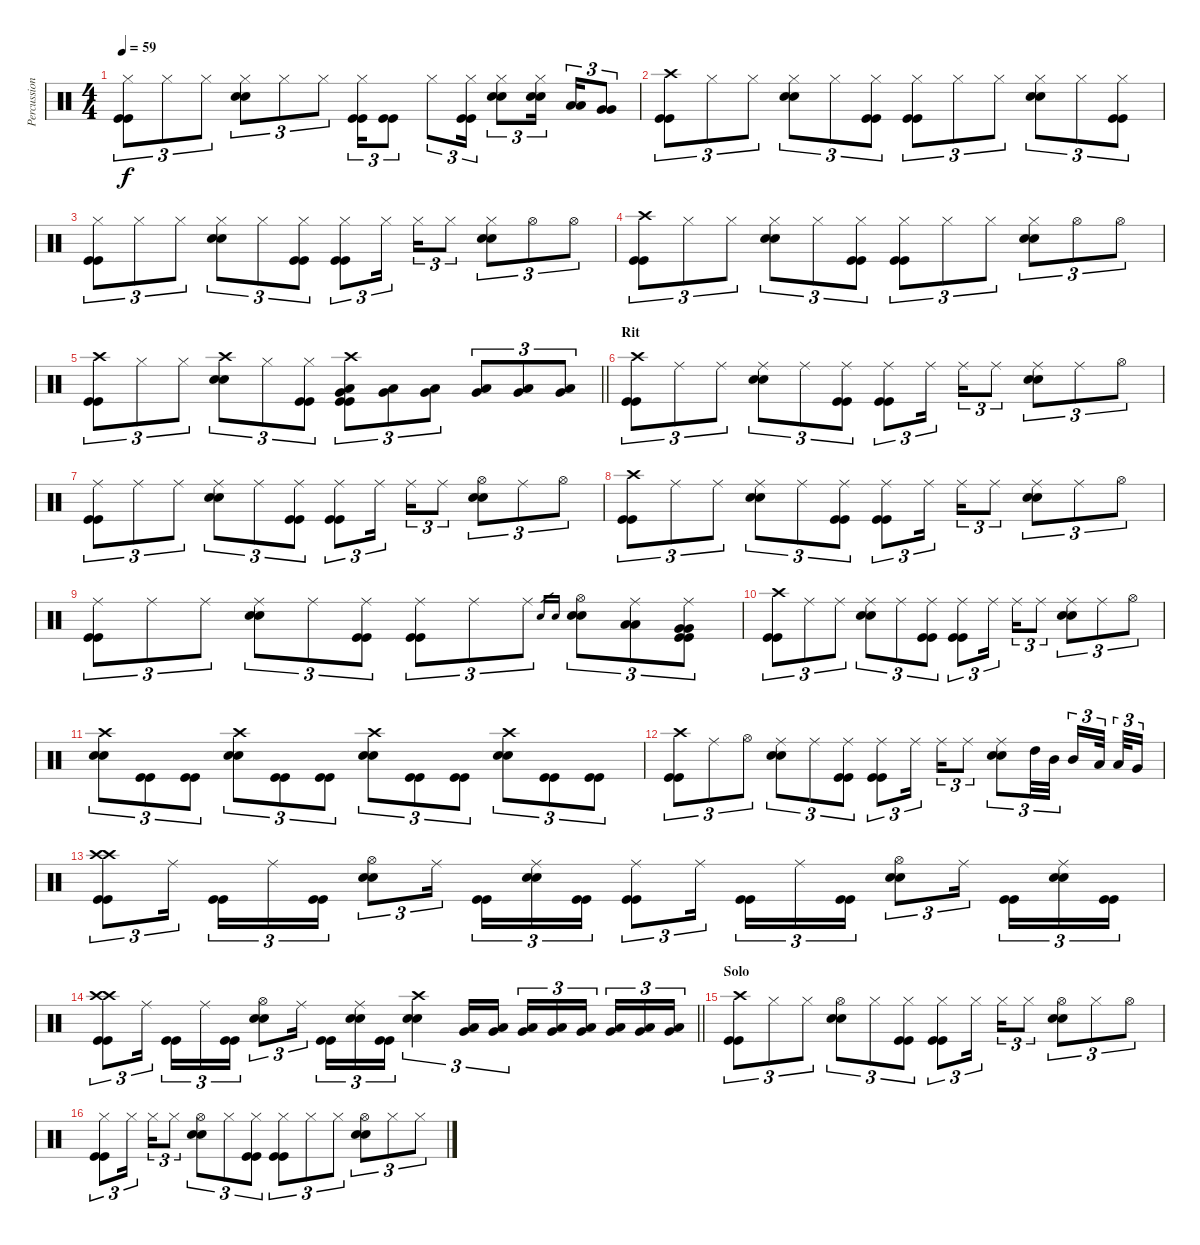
\track ("Percussioni" "Percussion") {instrument percussion}
\staff {score}
\articulation defaults
\ts (4 4)
\tempo 59
\clef neutral
\ks c
("Hi-Hat (closed)" "Kick (hit)" "Kick (hit)").8{tu (3 2) dy f} "Hi-Hat (closed)".8{tu (3 2)} "Hi-Hat (closed)".8{tu (3 2)} ("Hi-Hat (closed)" "Snare (hit) 2" "Snare (hit) 2").8{tu (3 2)} "Hi-Hat (closed)".8{tu (3 2)} "Hi-Hat (closed)".8{tu (3 2)} ("Hi-Hat (closed)" "Kick (hit)" "Kick (hit)").16{tu (3 2)} ("Kick (hit)" "Kick (hit)").8{tu (3 2)} "Hi-Hat (closed)".8{tu (3 2)} ("Hi-Hat (closed)" "Kick (hit)" "Kick (hit)").16{tu (3 2)} ("Hi-Hat (closed)" "Snare (hit) 2" "Snare (hit) 2").8{tu (3 2)} ("Hi-Hat (closed)" "Snare (hit) 2" "Snare (hit) 2").16{tu (3 2) beam splitsecondary} ("Low Tom (hit)" "Low Tom (hit)").16{tu (3 2)} ("Very Low Tom (hit)" "Very Low Tom (hit)").8{tu (3 2)} |
("Crash high (hit)" "Kick (hit)" "Kick (hit)").8{tu (3 2)} "Hi-Hat (closed)".8{tu (3 2)} "Hi-Hat (closed)".8{tu (3 2)} ("Hi-Hat (closed)" "Snare (hit) 2" "Snare (hit) 2").8{tu (3 2)} "Hi-Hat (closed)".8{tu (3 2)} ("Hi-Hat (closed)" "Kick (hit)" "Kick (hit)").8{tu (3 2)} ("Hi-Hat (closed)" "Kick (hit)" "Kick (hit)").8{tu (3 2)} "Hi-Hat (closed)".8{tu (3 2)} "Hi-Hat (closed)".8{tu (3 2)} ("Hi-Hat (closed)" "Snare (hit) 2" "Snare (hit) 2").8{tu (3 2)} "Hi-Hat (closed)".8{tu (3 2)} ("Hi-Hat (closed)" "Kick (hit)" "Kick (hit)").8{tu (3 2)} |
("Hi-Hat (closed)" "Kick (hit)" "Kick (hit)").8{tu (3 2)} "Hi-Hat (closed)".8{tu (3 2)} "Hi-Hat (closed)".8{tu (3 2)} ("Hi-Hat (closed)" "Snare (hit) 2" "Snare (hit) 2").8{tu (3 2)} "Hi-Hat (closed)".8{tu (3 2)} ("Hi-Hat (closed)" "Kick (hit)" "Kick (hit)").8{tu (3 2)} ("Hi-Hat (closed)" "Kick (hit)" "Kick (hit)").8{tu (3 2)} "Hi-Hat (closed)".16{tu (3 2) beam splitsecondary} "Hi-Hat (closed)".16{tu (3 2)} "Hi-Hat (closed)".8{tu (3 2)} ("Hi-Hat (closed)" "Snare (hit) 2" "Snare (hit) 2").8{tu (3 2)} "Hi-Hat (open)".8{tu (3 2)} "Hi-Hat (open)".8{tu (3 2)} |
("Crash high (hit)" "Kick (hit)" "Kick (hit)").8{tu (3 2)} "Hi-Hat (closed)".8{tu (3 2)} "Hi-Hat (closed)".8{tu (3 2)} ("Hi-Hat (closed)" "Snare (hit) 2" "Snare (hit) 2").8{tu (3 2)} "Hi-Hat (closed)".8{tu (3 2)} ("Hi-Hat (closed)" "Kick (hit)" "Kick (hit)").8{tu (3 2)} ("Hi-Hat (closed)" "Kick (hit)" "Kick (hit)").8{tu (3 2)} "Hi-Hat (closed)".8{tu (3 2)} "Hi-Hat (closed)".8{tu (3 2)} ("Hi-Hat (closed)" "Snare (hit) 2" "Snare (hit) 2").8{tu (3 2)} "Hi-Hat (open)".8{tu (3 2)} "Hi-Hat (open)".8{tu (3 2)} |
\barLineRight lightlight
("Crash high (hit)" "Kick (hit)" "Kick (hit)").8{tu (3 2)} "Hi-Hat (closed)".8{tu (3 2)} "Hi-Hat (closed)".8{tu (3 2)} ("Crash high (hit)" "Snare (hit) 2" "Snare (hit) 2").8{tu (3 2)} "Hi-Hat (closed)".8{tu (3 2)} ("Hi-Hat (closed)" "Kick (hit)" "Kick (hit)").8{tu (3 2)} ("Crash high (hit)" "Low Tom (hit)" "Very Low Tom (hit)" "Kick (hit)" "Kick (hit)").8{tu (3 2) volume 6} ("Low Tom (hit)" "Very Low Tom (hit)").8{tu (3 2) volume 9} ("Low Tom (hit)" "Very Low Tom (hit)").8{tu (3 2) volume 11} ("Low Tom (hit)" "Very Low Tom (hit)").8{tu (3 2)} ("Low Tom (hit)" "Very Low Tom (hit)").8{tu (3 2)} ("Low Tom (hit)" "Very Low Tom (hit)").8{tu (3 2)} |
\section ("" "Rit")
("Crash high (hit)" "Kick (hit)" "Kick (hit)").8{tu (3 2)} "Ride (middle)".8{tu (3 2)} "Ride (middle)".8{tu (3 2)} ("Ride (middle)" "Snare (hit) 2" "Snare (hit) 2").8{tu (3 2)} "Ride (middle)".8{tu (3 2)} ("Ride (middle)" "Kick (hit)" "Kick (hit)").8{tu (3 2)} ("Ride (middle)" "Kick (hit)" "Kick (hit)").8{tu (3 2)} "Ride (middle)".16{tu (3 2) beam splitsecondary} "Ride (middle)".16{tu (3 2)} "Ride (middle)".8{tu (3 2)} ("Ride (middle)" "Snare (hit) 2" "Snare (hit) 2").8{tu (3 2)} "Ride (middle)".8{tu (3 2)} "Hi-Hat (open)".8{tu (3 2)} |
("Ride (middle)" "Kick (hit)" "Kick (hit)").8{tu (3 2)} "Ride (middle)".8{tu (3 2)} "Ride (middle)".8{tu (3 2)} ("Ride (middle)" "Snare (hit) 2" "Snare (hit) 2").8{tu (3 2)} "Ride (middle)".8{tu (3 2)} ("Ride (middle)" "Kick (hit)" "Kick (hit)").8{tu (3 2)} ("Ride (middle)" "Kick (hit)" "Kick (hit)").8{tu (3 2)} "Ride (middle)".16{tu (3 2) beam splitsecondary} "Ride (middle)".16{tu (3 2)} "Ride (middle)".8{tu (3 2)} ("Hi-Hat (open)" "Snare (hit) 2" "Snare (hit) 2").8{tu (3 2)} "Ride (middle)".8{tu (3 2)} "Hi-Hat (open)".8{tu (3 2)} |
("Crash high (hit)" "Kick (hit)" "Kick (hit)").8{tu (3 2)} "Ride (middle)".8{tu (3 2)} "Ride (middle)".8{tu (3 2)} ("Ride (middle)" "Snare (hit) 2" "Snare (hit) 2").8{tu (3 2)} "Ride (middle)".8{tu (3 2)} ("Ride (middle)" "Kick (hit)" "Kick (hit)").8{tu (3 2)} ("Ride (middle)" "Kick (hit)" "Kick (hit)").8{tu (3 2)} "Ride (middle)".16{tu (3 2) beam splitsecondary} "Ride (middle)".16{tu (3 2)} "Ride (middle)".8{tu (3 2)} ("Ride (middle)" "Snare (hit) 2" "Snare (hit) 2").8{tu (3 2)} "Ride (middle)".8{tu (3 2)} "Hi-Hat (open)".8{tu (3 2)} |
("Ride (middle)" "Kick (hit)" "Kick (hit)").8{tu (3 2)} "Ride (middle)".8{tu (3 2)} "Ride (middle)".8{tu (3 2)} ("Ride (middle)" "Snare (hit) 2" "Snare (hit) 2").8{tu (3 2)} "Ride (middle)".8{tu (3 2)} ("Ride (middle)" "Kick (hit)" "Kick (hit)").8{tu (3 2)} ("Ride (middle)" "Kick (hit)" "Kick (hit)").8{tu (3 2)} "Ride (middle)".8{tu (3 2)} "Ride (middle)".8{tu (3 2)} "Snare (hit) 2".16{gr} "Snare (hit) 2".16{gr} ("Hi-Hat (open)" "Snare (hit) 2" "Snare (hit) 2").8{tu (3 2)} ("Ride (middle)" "Low Tom (hit)" "Low Tom (hit)").8{tu (3 2)} ("Ride (middle)" "Very Low Tom (hit)" "Very Low Tom (hit)" "Kick (hit)" "Kick (hit)").8{tu (3 2)} |
("Crash high (hit)" "Kick (hit)" "Kick (hit)").8{tu (3 2)} "Ride (middle)".8{tu (3 2)} "Ride (middle)".8{tu (3 2)} ("Ride (middle)" "Snare (hit) 2" "Snare (hit) 2").8{tu (3 2)} "Ride (middle)".8{tu (3 2)} ("Ride (middle)" "Kick (hit)" "Kick (hit)").8{tu (3 2)} ("Ride (middle)" "Kick (hit)" "Kick (hit)").8{tu (3 2)} "Ride (middle)".16{tu (3 2) beam splitsecondary} "Ride (middle)".16{tu (3 2)} "Ride (middle)".8{tu (3 2)} ("Ride (middle)" "Snare (hit) 2" "Snare (hit) 2").8{tu (3 2)} "Ride (middle)".8{tu (3 2)} "Hi-Hat (open)".8{tu (3 2)} |
("Crash high (hit)" "Snare (hit) 2" "Snare (hit) 2").8{tu (3 2)} ("Kick (hit)" "Kick (hit)").8{tu (3 2)} ("Kick (hit)" "Kick (hit)").8{tu (3 2)} ("Crash high (hit)" "Snare (hit) 2" "Snare (hit) 2").8{tu (3 2)} ("Kick (hit)" "Kick (hit)").8{tu (3 2)} ("Kick (hit)" "Kick (hit)").8{tu (3 2)} ("Crash high (hit)" "Snare (hit) 2" "Snare (hit) 2").8{tu (3 2)} ("Kick (hit)" "Kick (hit)").8{tu (3 2)} ("Kick (hit)" "Kick (hit)").8{tu (3 2)} ("Crash high (hit)" "Snare (hit) 2" "Snare (hit) 2").8{tu (3 2)} ("Kick (hit)" "Kick (hit)").8{tu (3 2)} ("Kick (hit)" "Kick (hit)").8{tu (3 2)} |
("Crash high (hit)" "Kick (hit)" "Kick (hit)").8{tu (3 2)} "Ride (middle)".8{tu (3 2)} "Hi-Hat (open)".8{tu (3 2)} ("Ride (middle)" "Snare (hit) 2" "Snare (hit) 2").8{tu (3 2)} "Ride (middle)".8{tu (3 2)} ("Ride (middle)" "Kick (hit)" "Kick (hit)").8{tu (3 2)} ("Ride (middle)" "Kick (hit)" "Kick (hit)").8{tu (3 2)} "Ride (middle)".16{tu (3 2) beam splitsecondary} "Ride (middle)".16{tu (3 2)} "Ride (middle)".8{tu (3 2)} ("Ride (middle)" "Snare (hit) 2" "Snare (hit) 2").8{tu (3 2)} "High Tom (hit)".32{tu (3 2)} "Mid Tom (hit)".32{tu (3 2) beam splitsecondary} "Mid Tom (hit)".16{tu (3 2)} "Low Tom (hit)".32{tu (3 2) beam splitsecondary} "Low Tom (hit)".32{tu (3 2)} "Very Low Tom (hit)".16{tu (3 2)} |
("Crash high (hit)" "Crash high (hit)" "Kick (hit)" "Kick (hit)").8{tu (3 2)} "Ride (middle)".16{tu (3 2) beam splitsecondary} ("Kick (hit)" "Kick (hit)").16{tu (3 2)} "Ride (middle)".16{tu (3 2)} ("Kick (hit)" "Kick (hit)").16{tu (3 2)} ("Hi-Hat (open)" "Snare (hit) 2" "Snare (hit) 2").8{tu (3 2)} "Ride (middle)".16{tu (3 2) beam splitsecondary} ("Kick (hit)" "Kick (hit)").16{tu (3 2)} ("Ride (middle)" "Snare (hit) 2" "Snare (hit) 2").16{tu (3 2)} ("Kick (hit)" "Kick (hit)").16{tu (3 2)} ("Ride (middle)" "Kick (hit)" "Kick (hit)").8{tu (3 2)} "Ride (middle)".16{tu (3 2) beam splitsecondary} ("Kick (hit)" "Kick (hit)").16{tu (3 2)} "Ride (middle)".16{tu (3 2)} ("Kick (hit)" "Kick (hit)").16{tu (3 2)} ("Hi-Hat (open)" "Snare (hit) 2" "Snare (hit) 2").8{tu (3 2)} "Ride (middle)".16{tu (3 2) beam splitsecondary} ("Kick (hit)" "Kick (hit)").16{tu (3 2)} ("Ride (middle)" "Snare (hit) 2" "Snare (hit) 2").16{tu (3 2)} ("Kick (hit)" "Kick (hit)").16{tu (3 2)} |
\barLineRight lightlight
("Crash high (hit)" "Crash high (hit)" "Kick (hit)" "Kick (hit)").8{tu (3 2)} "Ride (middle)".16{tu (3 2) beam splitsecondary} ("Kick (hit)" "Kick (hit)").16{tu (3 2)} "Ride (middle)".16{tu (3 2)} ("Kick (hit)" "Kick (hit)").16{tu (3 2)} ("Hi-Hat (open)" "Snare (hit) 2" "Snare (hit) 2").8{tu (3 2)} "Ride (middle)".16{tu (3 2) beam splitsecondary} ("Kick (hit)" "Kick (hit)").16{tu (3 2)} ("Ride (middle)" "Snare (hit) 2" "Snare (hit) 2").16{tu (3 2)} ("Kick (hit)" "Kick (hit)").16{tu (3 2)} ("Crash high (hit)" "Snare (hit) 2" "Snare (hit) 2").4{tu (3 2)} ("Low Tom (hit)" "Very Low Tom (hit)").16{tu (3 2)} ("Low Tom (hit)" "Very Low Tom (hit)").16{tu (3 2)} ("Low Tom (hit)" "Very Low Tom (hit)").16{tu (3 2)} ("Low Tom (hit)" "Very Low Tom (hit)").16{tu (3 2)} ("Low Tom (hit)" "Very Low Tom (hit)").16{tu (3 2) beam splitsecondary} ("Low Tom (hit)" "Very Low Tom (hit)").16{tu (3 2)} ("Low Tom (hit)" "Very Low Tom (hit)").16{tu (3 2)} ("Low Tom (hit)" "Very Low Tom (hit)").16{tu (3 2)} |
\section ("" "Solo")
("Crash high (hit)" "Kick (hit)" "Kick (hit)").8{tu (3 2)} "Hi-Hat (closed)".8{tu (3 2)} "Hi-Hat (closed)".8{tu (3 2)} ("Hi-Hat (open)" "Snare (hit) 2" "Snare (hit) 2").8{tu (3 2)} "Hi-Hat (closed)".8{tu (3 2)} ("Hi-Hat (closed)" "Kick (hit)" "Kick (hit)").8{tu (3 2)} ("Hi-Hat (closed)" "Kick (hit)" "Kick (hit)").8{tu (3 2)} "Hi-Hat (closed)".16{tu (3 2) beam splitsecondary} "Hi-Hat (closed)".16{tu (3 2)} "Hi-Hat (closed)".8{tu (3 2)} ("Hi-Hat (open)" "Snare (hit) 2" "Snare (hit) 2").8{tu (3 2)} "Hi-Hat (closed)".8{tu (3 2)} "Hi-Hat (open)".8{tu (3 2)} |
("Hi-Hat (closed)" "Kick (hit)" "Kick (hit)").8{tu (3 2)} "Hi-Hat (closed)".16{tu (3 2) beam splitsecondary} "Hi-Hat (closed)".16{tu (3 2)} "Hi-Hat (closed)".8{tu (3 2)} ("Hi-Hat (open)" "Snare (hit) 2" "Snare (hit) 2").8{tu (3 2)} "Hi-Hat (closed)".8{tu (3 2)} ("Hi-Hat (closed)" "Kick (hit)" "Kick (hit)").8{tu (3 2)} ("Hi-Hat (closed)" "Kick (hit)" "Kick (hit)").8{tu (3 2)} "Hi-Hat (closed)".8{tu (3 2)} "Hi-Hat (closed)".8{tu (3 2)} ("Hi-Hat (open)" "Snare (hit) 2" "Snare (hit) 2").8{tu (3 2)} "Hi-Hat (closed)".8{tu (3 2)} "Hi-Hat (closed)".8{tu (3 2)}
